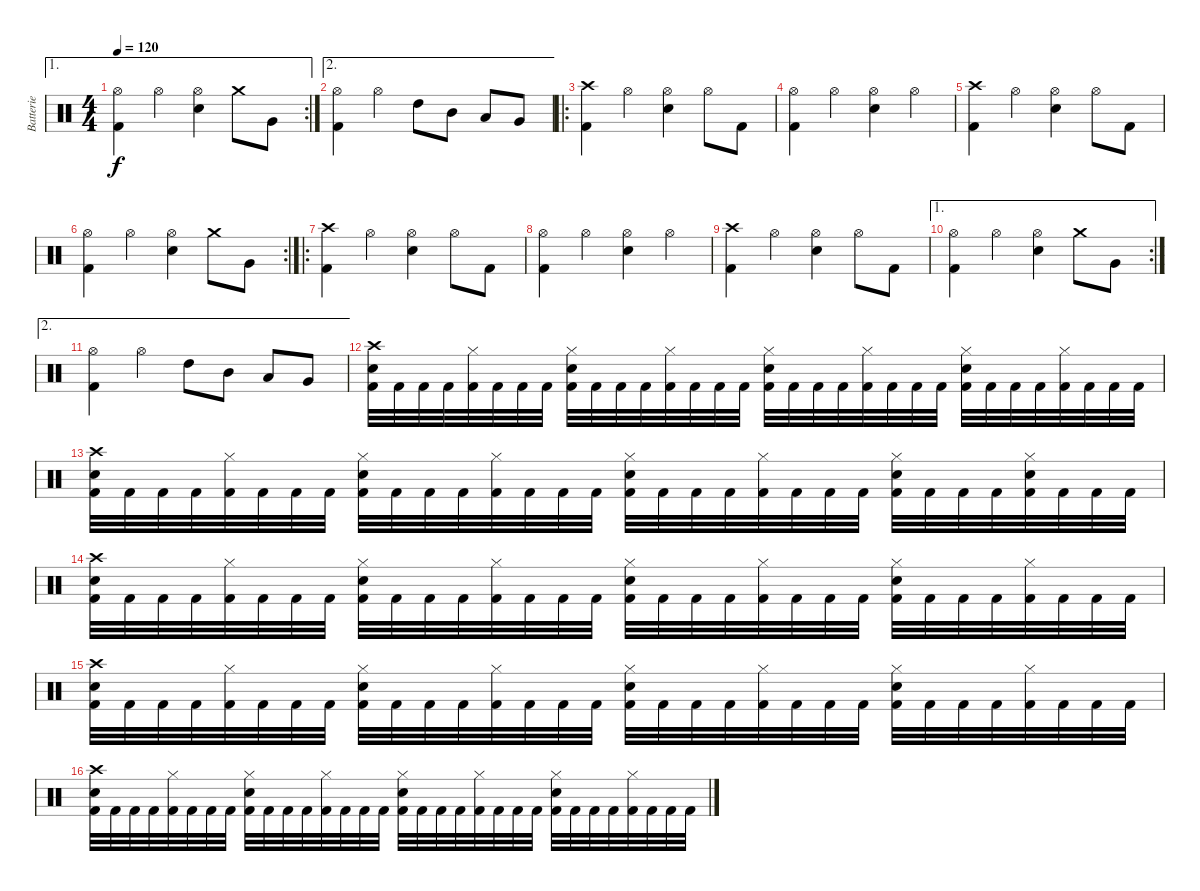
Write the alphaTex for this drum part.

\track ("Batterie" "Batterie") {instrument percussion}
\staff {score}
\articulation defaults
\ae 1
\rc 2
\ts (4 4)
\tempo 120
\clef neutral
\ks c
("Hi-Hat (open)" "Kick (hit) 2").4{dy f} "Hi-Hat (open)".4 ("Hi-Hat (open)" "Electric Snare (hit)").4 "Crash medium (hit)".8 "Very Low Tom (hit)".8 |
\ae 2
("Hi-Hat (open)" "Kick (hit) 2").4 "Hi-Hat (open)".4 "High Tom (hit)".8 "Mid Tom (hit)".8 "Low Tom (hit)".8 "Very Low Tom (hit)".8 |
\ro
("Crash high (hit)" "Kick (hit) 2").4 "Hi-Hat (open)".4 ("Hi-Hat (open)" "Electric Snare (hit)").4 "Hi-Hat (open)".8 "Kick (hit) 2".8 |
("Hi-Hat (open)" "Kick (hit) 2").4 "Hi-Hat (open)".4 ("Hi-Hat (open)" "Electric Snare (hit)").4 "Hi-Hat (open)".4 |
("Crash high (hit)" "Kick (hit) 2").4 "Hi-Hat (open)".4 ("Hi-Hat (open)" "Electric Snare (hit)").4 "Hi-Hat (open)".8 "Kick (hit) 2".8 |
\rc 2
("Hi-Hat (open)" "Kick (hit) 2").4 "Hi-Hat (open)".4 ("Hi-Hat (open)" "Electric Snare (hit)").4 "Crash medium (hit)".8 "Very Low Tom (hit)".8 |
\ro
("Crash high (hit)" "Kick (hit) 2").4 "Hi-Hat (open)".4 ("Hi-Hat (open)" "Electric Snare (hit)").4 "Hi-Hat (open)".8 "Kick (hit) 2".8 |
("Hi-Hat (open)" "Kick (hit) 2").4 "Hi-Hat (open)".4 ("Hi-Hat (open)" "Electric Snare (hit)").4 "Hi-Hat (open)".4 |
("Crash high (hit)" "Kick (hit) 2").4 "Hi-Hat (open)".4 ("Hi-Hat (open)" "Electric Snare (hit)").4 "Hi-Hat (open)".8 "Kick (hit) 2".8 |
\ae 1
\rc 2
("Hi-Hat (open)" "Kick (hit) 2").4 "Hi-Hat (open)".4 ("Hi-Hat (open)" "Electric Snare (hit)").4 "Crash medium (hit)".8 "Very Low Tom (hit)".8 |
\ae 2
("Hi-Hat (open)" "Kick (hit) 2").4 "Hi-Hat (open)".4 "High Tom (hit)".8 "Mid Tom (hit)".8 "Low Tom (hit)".8 "Very Low Tom (hit)".8 |
("Crash high (hit)" "Electric Snare (hit)" "Kick (hit) 2").32 "Kick (hit) 2".32 "Kick (hit) 2".32 "Kick (hit) 2".32 ("Hi-Hat (closed)" "Kick (hit) 2").32 "Kick (hit) 2".32 "Kick (hit) 2".32 "Kick (hit) 2".32 ("Hi-Hat (closed)" "Electric Snare (hit)" "Kick (hit) 2").32 "Kick (hit) 2".32 "Kick (hit) 2".32 "Kick (hit) 2".32 ("Hi-Hat (closed)" "Kick (hit) 2").32 "Kick (hit) 2".32 "Kick (hit) 2".32 "Kick (hit) 2".32 ("Hi-Hat (closed)" "Electric Snare (hit)" "Kick (hit) 2").32 "Kick (hit) 2".32 "Kick (hit) 2".32 "Kick (hit) 2".32 ("Hi-Hat (closed)" "Kick (hit) 2").32 "Kick (hit) 2".32 "Kick (hit) 2".32 "Kick (hit) 2".32 ("Hi-Hat (closed)" "Electric Snare (hit)" "Kick (hit) 2").32 "Kick (hit) 2".32 "Kick (hit) 2".32 "Kick (hit) 2".32 ("Hi-Hat (closed)" "Kick (hit) 2").32 "Kick (hit) 2".32 "Kick (hit) 2".32 "Kick (hit) 2".32 |
("Crash high (hit)" "Electric Snare (hit)" "Kick (hit) 2").32 "Kick (hit) 2".32 "Kick (hit) 2".32 "Kick (hit) 2".32 ("Hi-Hat (closed)" "Kick (hit) 2").32 "Kick (hit) 2".32 "Kick (hit) 2".32 "Kick (hit) 2".32 ("Hi-Hat (closed)" "Electric Snare (hit)" "Kick (hit) 2").32 "Kick (hit) 2".32 "Kick (hit) 2".32 "Kick (hit) 2".32 ("Hi-Hat (closed)" "Kick (hit) 2").32 "Kick (hit) 2".32 "Kick (hit) 2".32 "Kick (hit) 2".32 ("Hi-Hat (closed)" "Electric Snare (hit)" "Kick (hit) 2").32 "Kick (hit) 2".32 "Kick (hit) 2".32 "Kick (hit) 2".32 ("Hi-Hat (closed)" "Kick (hit) 2").32 "Kick (hit) 2".32 "Kick (hit) 2".32 "Kick (hit) 2".32 ("Hi-Hat (closed)" "Electric Snare (hit)" "Kick (hit) 2").32 "Kick (hit) 2".32 "Kick (hit) 2".32 "Kick (hit) 2".32 ("Hi-Hat (closed)" "Electric Snare (hit)" "Kick (hit) 2").32 "Kick (hit) 2".32 "Kick (hit) 2".32 "Kick (hit) 2".32 |
("Crash high (hit)" "Electric Snare (hit)" "Kick (hit) 2").32 "Kick (hit) 2".32 "Kick (hit) 2".32 "Kick (hit) 2".32 ("Hi-Hat (closed)" "Kick (hit) 2").32 "Kick (hit) 2".32 "Kick (hit) 2".32 "Kick (hit) 2".32 ("Hi-Hat (closed)" "Electric Snare (hit)" "Kick (hit) 2").32 "Kick (hit) 2".32 "Kick (hit) 2".32 "Kick (hit) 2".32 ("Hi-Hat (closed)" "Kick (hit) 2").32 "Kick (hit) 2".32 "Kick (hit) 2".32 "Kick (hit) 2".32 ("Hi-Hat (closed)" "Electric Snare (hit)" "Kick (hit) 2").32 "Kick (hit) 2".32 "Kick (hit) 2".32 "Kick (hit) 2".32 ("Hi-Hat (closed)" "Kick (hit) 2").32 "Kick (hit) 2".32 "Kick (hit) 2".32 "Kick (hit) 2".32 ("Hi-Hat (closed)" "Electric Snare (hit)" "Kick (hit) 2").32 "Kick (hit) 2".32 "Kick (hit) 2".32 "Kick (hit) 2".32 ("Hi-Hat (closed)" "Kick (hit) 2").32 "Kick (hit) 2".32 "Kick (hit) 2".32 "Kick (hit) 2".32 |
("Crash high (hit)" "Electric Snare (hit)" "Kick (hit) 2").32 "Kick (hit) 2".32 "Kick (hit) 2".32 "Kick (hit) 2".32 ("Hi-Hat (closed)" "Kick (hit) 2").32 "Kick (hit) 2".32 "Kick (hit) 2".32 "Kick (hit) 2".32 ("Hi-Hat (closed)" "Electric Snare (hit)" "Kick (hit) 2").32 "Kick (hit) 2".32 "Kick (hit) 2".32 "Kick (hit) 2".32 ("Hi-Hat (closed)" "Kick (hit) 2").32 "Kick (hit) 2".32 "Kick (hit) 2".32 "Kick (hit) 2".32 ("Hi-Hat (closed)" "Electric Snare (hit)" "Kick (hit) 2").32 "Kick (hit) 2".32 "Kick (hit) 2".32 "Kick (hit) 2".32 ("Hi-Hat (closed)" "Kick (hit) 2").32 "Kick (hit) 2".32 "Kick (hit) 2".32 "Kick (hit) 2".32 ("Hi-Hat (closed)" "Electric Snare (hit)" "Kick (hit) 2").32 "Kick (hit) 2".32 "Kick (hit) 2".32 "Kick (hit) 2".32 ("Hi-Hat (closed)" "Kick (hit) 2").32 "Kick (hit) 2".32 "Kick (hit) 2".32 "Kick (hit) 2".32 |
("Crash high (hit)" "Electric Snare (hit)" "Kick (hit) 2").32 "Kick (hit) 2".32 "Kick (hit) 2".32 "Kick (hit) 2".32 ("Hi-Hat (closed)" "Kick (hit) 2").32 "Kick (hit) 2".32 "Kick (hit) 2".32 "Kick (hit) 2".32 ("Hi-Hat (closed)" "Electric Snare (hit)" "Kick (hit) 2").32 "Kick (hit) 2".32 "Kick (hit) 2".32 "Kick (hit) 2".32 ("Hi-Hat (closed)" "Kick (hit) 2").32 "Kick (hit) 2".32 "Kick (hit) 2".32 "Kick (hit) 2".32 ("Hi-Hat (closed)" "Electric Snare (hit)" "Kick (hit) 2").32 "Kick (hit) 2".32 "Kick (hit) 2".32 "Kick (hit) 2".32 ("Hi-Hat (closed)" "Kick (hit) 2").32 "Kick (hit) 2".32 "Kick (hit) 2".32 "Kick (hit) 2".32 ("Hi-Hat (closed)" "Electric Snare (hit)" "Kick (hit) 2").32 "Kick (hit) 2".32 "Kick (hit) 2".32 "Kick (hit) 2".32 ("Hi-Hat (closed)" "Kick (hit) 2").32 "Kick (hit) 2".32 "Kick (hit) 2".32 "Kick (hit) 2".32
